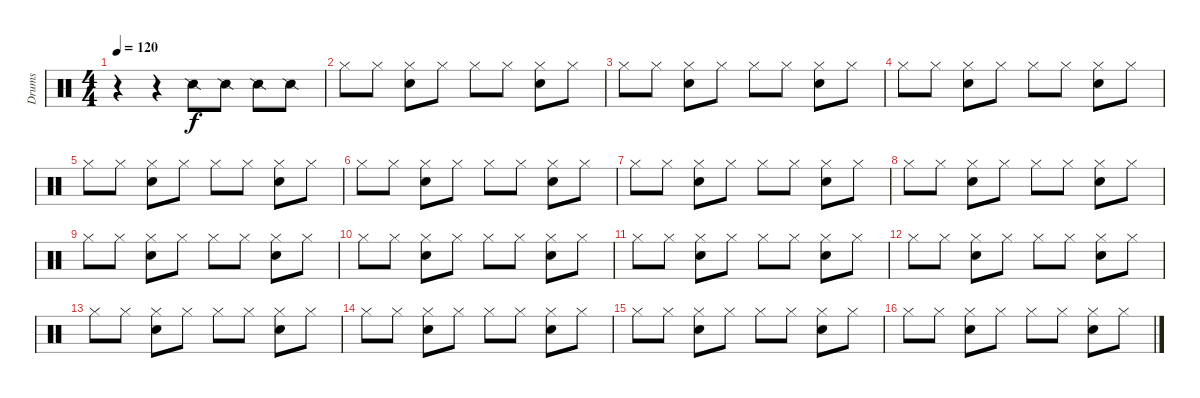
\track ("Drums" "Drums") {instrument percussion}
\staff {score}
\articulation defaults
\ts (4 4)
\tempo 120
\clef neutral
\ks c
r.4{dy f} r.4 "Snare (side stick) 2".8 "Snare (side stick) 2".8 "Snare (side stick) 2".8 "Snare (side stick) 2".8 |
"Hi-Hat (closed)".8 "Hi-Hat (closed)".8 ("Hi-Hat (closed)" "Electric Snare (hit)").8 "Hi-Hat (closed)".8 "Hi-Hat (closed)".8 "Hi-Hat (closed)".8 ("Hi-Hat (closed)" "Electric Snare (hit)").8 "Hi-Hat (closed)".8 |
"Hi-Hat (closed)".8 "Hi-Hat (closed)".8 ("Hi-Hat (closed)" "Electric Snare (hit)").8 "Hi-Hat (closed)".8 "Hi-Hat (closed)".8 "Hi-Hat (closed)".8 ("Hi-Hat (closed)" "Electric Snare (hit)").8 "Hi-Hat (closed)".8 |
"Hi-Hat (closed)".8 "Hi-Hat (closed)".8 ("Hi-Hat (closed)" "Electric Snare (hit)").8 "Hi-Hat (closed)".8 "Hi-Hat (closed)".8 "Hi-Hat (closed)".8 ("Hi-Hat (closed)" "Electric Snare (hit)").8 "Hi-Hat (closed)".8 |
"Hi-Hat (closed)".8 "Hi-Hat (closed)".8 ("Hi-Hat (closed)" "Electric Snare (hit)").8 "Hi-Hat (closed)".8 "Hi-Hat (closed)".8 "Hi-Hat (closed)".8 ("Hi-Hat (closed)" "Electric Snare (hit)").8 "Hi-Hat (closed)".8 |
"Hi-Hat (closed)".8 "Hi-Hat (closed)".8 ("Hi-Hat (closed)" "Electric Snare (hit)").8 "Hi-Hat (closed)".8 "Hi-Hat (closed)".8 "Hi-Hat (closed)".8 ("Hi-Hat (closed)" "Electric Snare (hit)").8 "Hi-Hat (closed)".8 |
"Hi-Hat (closed)".8 "Hi-Hat (closed)".8 ("Hi-Hat (closed)" "Electric Snare (hit)").8 "Hi-Hat (closed)".8 "Hi-Hat (closed)".8 "Hi-Hat (closed)".8 ("Hi-Hat (closed)" "Electric Snare (hit)").8 "Hi-Hat (closed)".8 |
"Hi-Hat (closed)".8 "Hi-Hat (closed)".8 ("Hi-Hat (closed)" "Electric Snare (hit)").8 "Hi-Hat (closed)".8 "Hi-Hat (closed)".8 "Hi-Hat (closed)".8 ("Hi-Hat (closed)" "Electric Snare (hit)").8 "Hi-Hat (closed)".8 |
"Hi-Hat (closed)".8 "Hi-Hat (closed)".8 ("Hi-Hat (closed)" "Electric Snare (hit)").8 "Hi-Hat (closed)".8 "Hi-Hat (closed)".8 "Hi-Hat (closed)".8 ("Hi-Hat (closed)" "Electric Snare (hit)").8 "Hi-Hat (closed)".8 |
"Hi-Hat (closed)".8 "Hi-Hat (closed)".8 ("Hi-Hat (closed)" "Electric Snare (hit)").8 "Hi-Hat (closed)".8 "Hi-Hat (closed)".8 "Hi-Hat (closed)".8 ("Hi-Hat (closed)" "Electric Snare (hit)").8 "Hi-Hat (closed)".8 |
"Hi-Hat (closed)".8 "Hi-Hat (closed)".8 ("Hi-Hat (closed)" "Electric Snare (hit)").8 "Hi-Hat (closed)".8 "Hi-Hat (closed)".8 "Hi-Hat (closed)".8 ("Hi-Hat (closed)" "Electric Snare (hit)").8 "Hi-Hat (closed)".8 |
"Hi-Hat (closed)".8 "Hi-Hat (closed)".8 ("Hi-Hat (closed)" "Electric Snare (hit)").8 "Hi-Hat (closed)".8 "Hi-Hat (closed)".8 "Hi-Hat (closed)".8 ("Hi-Hat (closed)" "Electric Snare (hit)").8 "Hi-Hat (closed)".8 |
"Hi-Hat (closed)".8 "Hi-Hat (closed)".8 ("Hi-Hat (closed)" "Electric Snare (hit)").8 "Hi-Hat (closed)".8 "Hi-Hat (closed)".8 "Hi-Hat (closed)".8 ("Hi-Hat (closed)" "Electric Snare (hit)").8 "Hi-Hat (closed)".8 |
"Hi-Hat (closed)".8 "Hi-Hat (closed)".8 ("Hi-Hat (closed)" "Electric Snare (hit)").8 "Hi-Hat (closed)".8 "Hi-Hat (closed)".8 "Hi-Hat (closed)".8 ("Hi-Hat (closed)" "Electric Snare (hit)").8 "Hi-Hat (closed)".8 |
"Hi-Hat (closed)".8 "Hi-Hat (closed)".8 ("Hi-Hat (closed)" "Electric Snare (hit)").8 "Hi-Hat (closed)".8 "Hi-Hat (closed)".8 "Hi-Hat (closed)".8 ("Hi-Hat (closed)" "Electric Snare (hit)").8 "Hi-Hat (closed)".8 |
"Hi-Hat (closed)".8 "Hi-Hat (closed)".8 ("Hi-Hat (closed)" "Electric Snare (hit)").8 "Hi-Hat (closed)".8 "Hi-Hat (closed)".8 "Hi-Hat (closed)".8 ("Hi-Hat (closed)" "Electric Snare (hit)").8 "Hi-Hat (closed)".8
